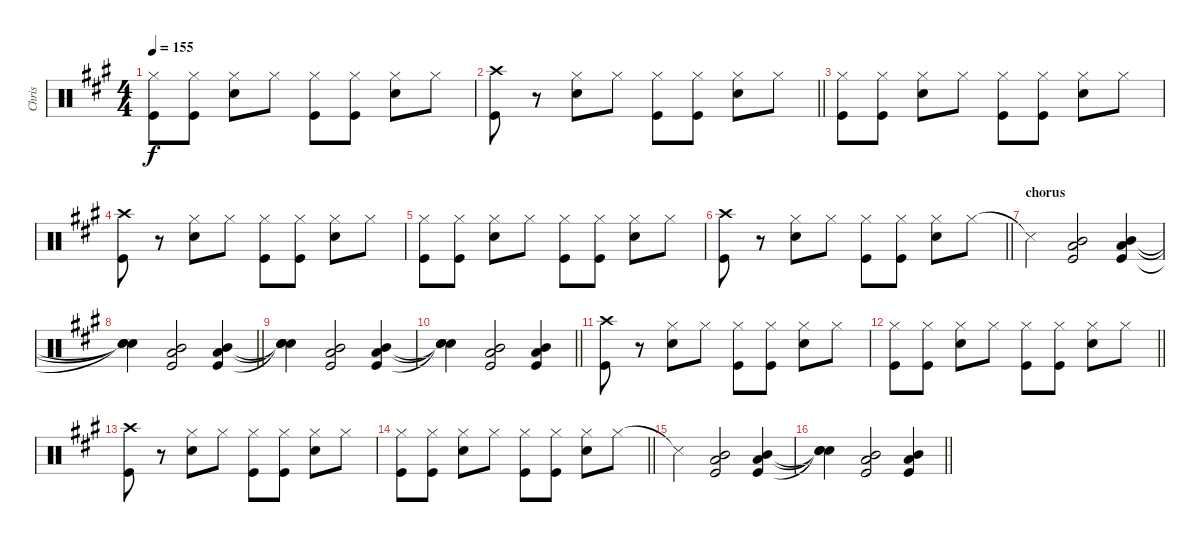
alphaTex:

\track ("Chris" "Chris") {instrument percussion}
\staff {score}
\articulation defaults
\ts (4 4)
\tempo 155
\clef neutral
\ks a
("Hi-Hat (closed)" "Kick (hit)").8{dy f} ("Hi-Hat (closed)" "Kick (hit)").8 ("Hi-Hat (closed)" "Snare (hit) 2").8 "Hi-Hat (closed)".8 ("Hi-Hat (closed)" "Kick (hit)").8 ("Hi-Hat (closed)" "Kick (hit)").8 ("Hi-Hat (closed)" "Snare (hit) 2").8 "Hi-Hat (closed)".8 |
\barLineRight lightlight
("Crash high (hit)" "Kick (hit)").8 r.8 ("Hi-Hat (closed)" "Snare (hit) 2").8 "Hi-Hat (closed)".8 ("Hi-Hat (closed)" "Kick (hit)").8 ("Hi-Hat (closed)" "Kick (hit)").8 ("Hi-Hat (closed)" "Snare (hit) 2").8 "Hi-Hat (closed)".8 |
("Hi-Hat (closed)" "Kick (hit)").8 ("Hi-Hat (closed)" "Kick (hit)").8 ("Hi-Hat (closed)" "Snare (hit) 2").8 "Hi-Hat (closed)".8 ("Hi-Hat (closed)" "Kick (hit)").8 ("Hi-Hat (closed)" "Kick (hit)").8 ("Hi-Hat (closed)" "Snare (hit) 2").8 "Hi-Hat (closed)".8 |
("Crash high (hit)" "Kick (hit)").8 r.8 ("Hi-Hat (closed)" "Snare (hit) 2").8 "Hi-Hat (closed)".8 ("Hi-Hat (closed)" "Kick (hit)").8 ("Hi-Hat (closed)" "Kick (hit)").8 ("Hi-Hat (closed)" "Snare (hit) 2").8 "Hi-Hat (closed)".8 |
("Hi-Hat (closed)" "Kick (hit)").8 ("Hi-Hat (closed)" "Kick (hit)").8 ("Hi-Hat (closed)" "Snare (hit) 2").8 "Hi-Hat (closed)".8 ("Hi-Hat (closed)" "Kick (hit)").8 ("Hi-Hat (closed)" "Kick (hit)").8 ("Hi-Hat (closed)" "Snare (hit) 2").8 "Hi-Hat (closed)".8 |
\barLineRight lightlight
("Crash high (hit)" "Kick (hit)").8 r.8 ("Hi-Hat (closed)" "Snare (hit) 2").8 "Hi-Hat (closed)".8 ("Hi-Hat (closed)" "Kick (hit)").8 ("Hi-Hat (closed)" "Kick (hit)").8 ("Hi-Hat (closed)" "Snare (hit) 2").8 "Hi-Hat (closed)".8 |
\section ("" "chorus")
"Snare (side stick) 3"{t}.4 ("Mid Tom (hit)" "Kick (hit)" "Low Floor Tom (hit)").2 ("Mid Tom (hit)" "Kick (hit)" "Low Floor Tom (hit)").4 |
\barLineRight lightlight
("Snare (hit)"{t} "Snare (hit)"{t} "Snare (hit)"{t}).4 ("Mid Tom (hit)" "Kick (hit)" "Low Floor Tom (hit)").2 ("Mid Tom (hit)" "Kick (hit)" "Low Floor Tom (hit)").4 |
("Snare (hit)"{t} "Snare (hit)"{t} "Snare (hit)"{t}).4 ("Mid Tom (hit)" "Kick (hit)" "Low Floor Tom (hit)").2 ("Mid Tom (hit)" "Kick (hit)" "Low Floor Tom (hit)").4 |
\barLineRight lightlight
("Snare (hit)"{t} "Snare (hit)"{t} "Snare (hit)"{t}).4 ("Mid Tom (hit)" "Kick (hit)" "Low Floor Tom (hit)").2 ("Mid Tom (hit)" "Kick (hit)" "Low Floor Tom (hit)").4 |
("Crash high (hit)" "Kick (hit)").8 r.8 ("Hi-Hat (closed)" "Snare (hit) 2").8 "Hi-Hat (closed)".8 ("Hi-Hat (closed)" "Kick (hit)").8 ("Hi-Hat (closed)" "Kick (hit)").8 ("Hi-Hat (closed)" "Snare (hit) 2").8 "Hi-Hat (closed)".8 |
\barLineRight lightlight
("Hi-Hat (closed)" "Kick (hit)").8 ("Hi-Hat (closed)" "Kick (hit)").8 ("Hi-Hat (closed)" "Snare (hit) 2").8 "Hi-Hat (closed)".8 ("Hi-Hat (closed)" "Kick (hit)").8 ("Hi-Hat (closed)" "Kick (hit)").8 ("Hi-Hat (closed)" "Snare (hit) 2").8 "Hi-Hat (closed)".8 |
("Crash high (hit)" "Kick (hit)").8 r.8 ("Hi-Hat (closed)" "Snare (hit) 2").8 "Hi-Hat (closed)".8 ("Hi-Hat (closed)" "Kick (hit)").8 ("Hi-Hat (closed)" "Kick (hit)").8 ("Hi-Hat (closed)" "Snare (hit) 2").8 "Hi-Hat (closed)".8 |
\barLineRight lightlight
("Hi-Hat (closed)" "Kick (hit)").8 ("Hi-Hat (closed)" "Kick (hit)").8 ("Hi-Hat (closed)" "Snare (hit) 2").8 "Hi-Hat (closed)".8 ("Hi-Hat (closed)" "Kick (hit)").8 ("Hi-Hat (closed)" "Kick (hit)").8 ("Hi-Hat (closed)" "Snare (hit) 2").8 "Hi-Hat (closed)".8 |
"Snare (side stick) 3"{t}.4 ("Mid Tom (hit)" "Kick (hit)" "Low Floor Tom (hit)").2 ("Mid Tom (hit)" "Kick (hit)" "Low Floor Tom (hit)").4 |
\barLineRight lightlight
("Snare (hit)"{t} "Snare (hit)"{t} "Snare (hit)"{t}).4 ("Mid Tom (hit)" "Kick (hit)" "Low Floor Tom (hit)").2 ("Mid Tom (hit)" "Kick (hit)" "Low Floor Tom (hit)").4
